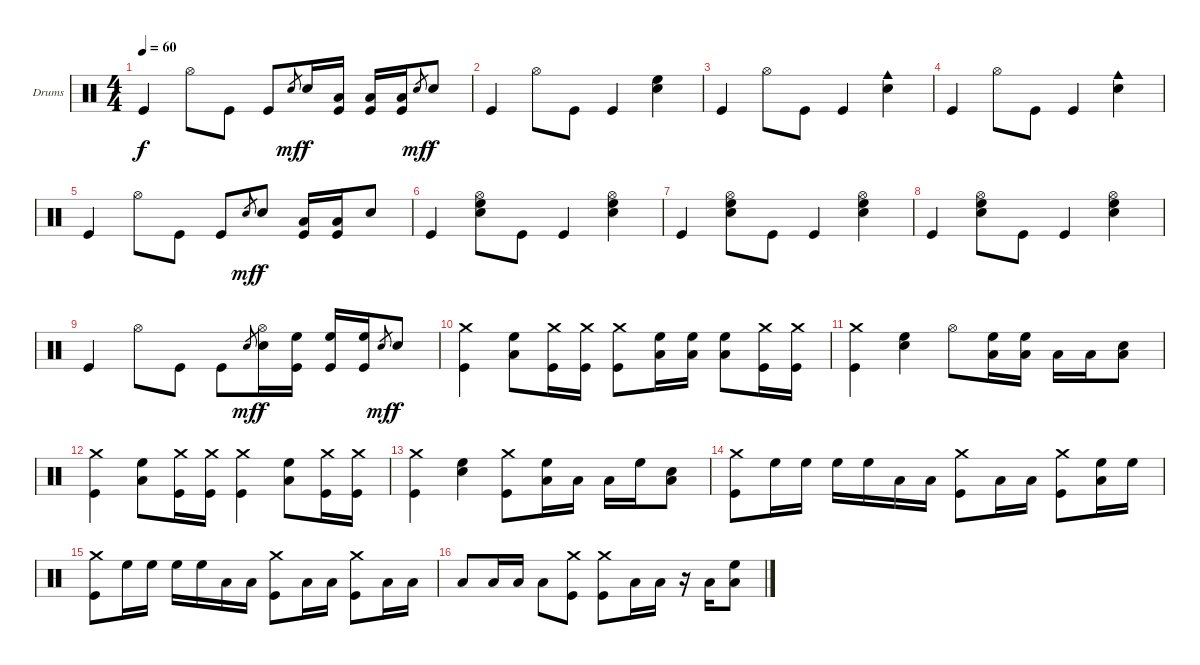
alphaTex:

\bracketExtendMode groupsimilarinstruments
\firstSystemTrackNameOrientation horizontal
\otherSystemsTrackNameOrientation horizontal
\track ("Drumkit" "Drums") {instrument percussion}
\staff {score}
\articulation defaults
\ts (4 4)
\tempo 60
\clef neutral
\scale
0.333333
\ks c "Kick (hit)".4{dy f} "Hi-Hat (open)".8 "Kick (hit)".8 "Kick (hit)".8 "Snare (hit) 2".8{gr dy mf} "Snare (hit) 2".16{dy f}
("Low Tom (hit)" "Kick (hit)").16 ("Low Tom (hit)" "Kick (hit)").16 ("Low Tom (hit)" "Kick (hit)").16 "Snare (hit) 2".8{gr dy mf} "Snare (hit) 2".8{dy f} |
\scale
0.333333 "Kick (hit)".4 "Hi-Hat (open)".8 "Kick (hit)".8 "Kick (hit)".4 ("High Floor Tom (hit)" "Snare (hit) 2").4 |
\scale
0.333333 "Kick (hit)".4 "Hi-Hat (open)".8 "Kick (hit)".8 "Kick (hit)".4 ("Cowbell medium (hit)" "Snare (hit) 2").4 |
\scale
0.333333 "Kick (hit)".4 "Hi-Hat (open)".8 "Kick (hit)".8 "Kick (hit)".4 ("Cowbell medium (hit)" "Snare (hit) 2").4 |
\scale
0.333333 "Kick (hit)".4 "Hi-Hat (open)".8 "Kick (hit)".8 "Kick (hit)".8 "Snare (hit) 2".8{gr dy mf} "Snare (hit) 2".8{dy f} ("Kick (hit)" "Low Tom (hit)").16 ("Kick (hit)" "Low Tom (hit)").16 "Snare (hit) 2".8 |
\scale
0.333333 "Kick (hit)".4 ("Hi-Hat (open)" "High Floor Tom (hit)" "Snare (hit) 2").8 "Kick (hit)".8 "Kick (hit)".4 ("Hi-Hat (open)" "High Floor Tom (hit)" "Snare (hit) 2").4 |
\scale
0.333333 "Kick (hit)".4 ("Hi-Hat (open)" "High Floor Tom (hit)" "Snare (hit) 2").8 "Kick (hit)".8 "Kick (hit)".4 ("Hi-Hat (open)" "High Floor Tom (hit)" "Snare (hit) 2").4 |
\scale
0.333333 "Kick (hit)".4 ("Hi-Hat (open)" "High Floor Tom (hit)" "Snare (hit) 2").8 "Kick (hit)".8 "Kick (hit)".4 ("Hi-Hat (open)" "High Floor Tom (hit)" "Snare (hit) 2").4 |
\scale
0.333333 "Kick (hit)".4 "Hi-Hat (open)".8 "Kick (hit)".8 "Kick (hit)".8 "Snare (hit) 2".8{gr dy mf} ("Hi-Hat (open)" "Snare (hit) 2").16{dy f} ("Kick (hit)" "High Floor Tom (hit)").16 ("Kick (hit)" "High Floor Tom (hit)").16 ("Kick (hit)" "High Floor Tom (hit)").16 "Snare (hit) 2".8{gr dy mf} "Snare (hit) 2".8{dy f} |
\scale
0.333333 ("Crash medium (hit)" "Kick (hit)").4 ("High Floor Tom (hit)" "Low Tom (hit)").8 ("Crash medium (hit)" "Kick (hit)").16 ("Crash medium (hit)" "Kick (hit)").16 ("Crash medium (hit)" "Kick (hit)").8 ("High Floor Tom (hit)" "Low Tom (hit)").16 ("High Floor Tom (hit)" "Low Tom (hit)").16 ("High Floor Tom (hit)" "Low Tom (hit)").8 ("Crash medium (hit)" "Kick (hit)").16 ("Crash medium (hit)" "Kick (hit)").16 |
\scale
0.333333 ("Crash medium (hit)" "Kick (hit)").4 ("High Floor Tom (hit)" "Snare (hit) 2").4 "Hi-Hat (open)".8 ("High Floor Tom (hit)" "Low Tom (hit)").16 ("High Floor Tom (hit)" "Low Tom (hit)").16 "Low Tom (hit)".16 "Low Tom (hit)".16 ("Snare (hit) 2" "Low Tom (hit)").8 |
\scale
0.333333 ("Crash medium (hit)" "Kick (hit)").4 ("High Floor Tom (hit)" "Low Tom (hit)").8 ("Crash medium (hit)" "Kick (hit)").16 ("Crash medium (hit)" "Kick (hit)").16 ("Crash medium (hit)" "Kick (hit)").4 ("High Floor Tom (hit)" "Low Tom (hit)").8 ("Crash medium (hit)" "Kick (hit)").16 ("Crash medium (hit)" "Kick (hit)").16 |
\scale
0.333333 ("Crash medium (hit)" "Kick (hit)").4 ("Snare (hit) 2" "High Floor Tom (hit)").4 ("Crash medium (hit)" "Kick (hit)").8 ("High Floor Tom (hit)" "Low Tom (hit)").16 "Low Tom (hit)".16 "Low Tom (hit)".16 "High Floor Tom (hit)".16 ("Snare (hit) 2" "Low Tom (hit)").8 |
\scale
0.333333 ("Crash medium (hit)" "Kick (hit)").8 "High Floor Tom (hit)".16 "High Floor Tom (hit)".16 "High Floor Tom (hit)".16 "High Floor Tom (hit)".16 "Low Tom (hit)".16 "Low Tom (hit)".16 ("Crash medium (hit)" "Kick (hit)").8 "Low Tom (hit)".16 "Low Tom (hit)".16 ("Crash medium (hit)" "Kick (hit)").8 ("High Floor Tom (hit)" "Low Tom (hit)").16 "High Floor Tom (hit)".16 |
\scale
0.333333 ("Crash medium (hit)" "Kick (hit)").8 "High Floor Tom (hit)".16 "High Floor Tom (hit)".16 "High Floor Tom (hit)".16 "High Floor Tom (hit)".16 "Low Tom (hit)".16 "Low Tom (hit)".16 ("Crash medium (hit)" "Kick (hit)").8 "Low Tom (hit)".16 "Low Tom (hit)".16 ("Crash medium (hit)" "Kick (hit)").8 "Low Tom (hit)".16 "Low Tom (hit)".16 |
\scale
0.333333 "Low Tom (hit)".8 "Low Tom (hit)".16 "Low Tom (hit)".16 "Low Tom (hit)".8 ("Crash medium (hit)" "Kick (hit)").8 ("Crash medium (hit)" "Kick (hit)").8 "Low Tom (hit)".16 "Low Tom (hit)".16 r.16 "Low Tom (hit)".16 ("High Floor Tom (hit)" "Low Tom (hit)").8
